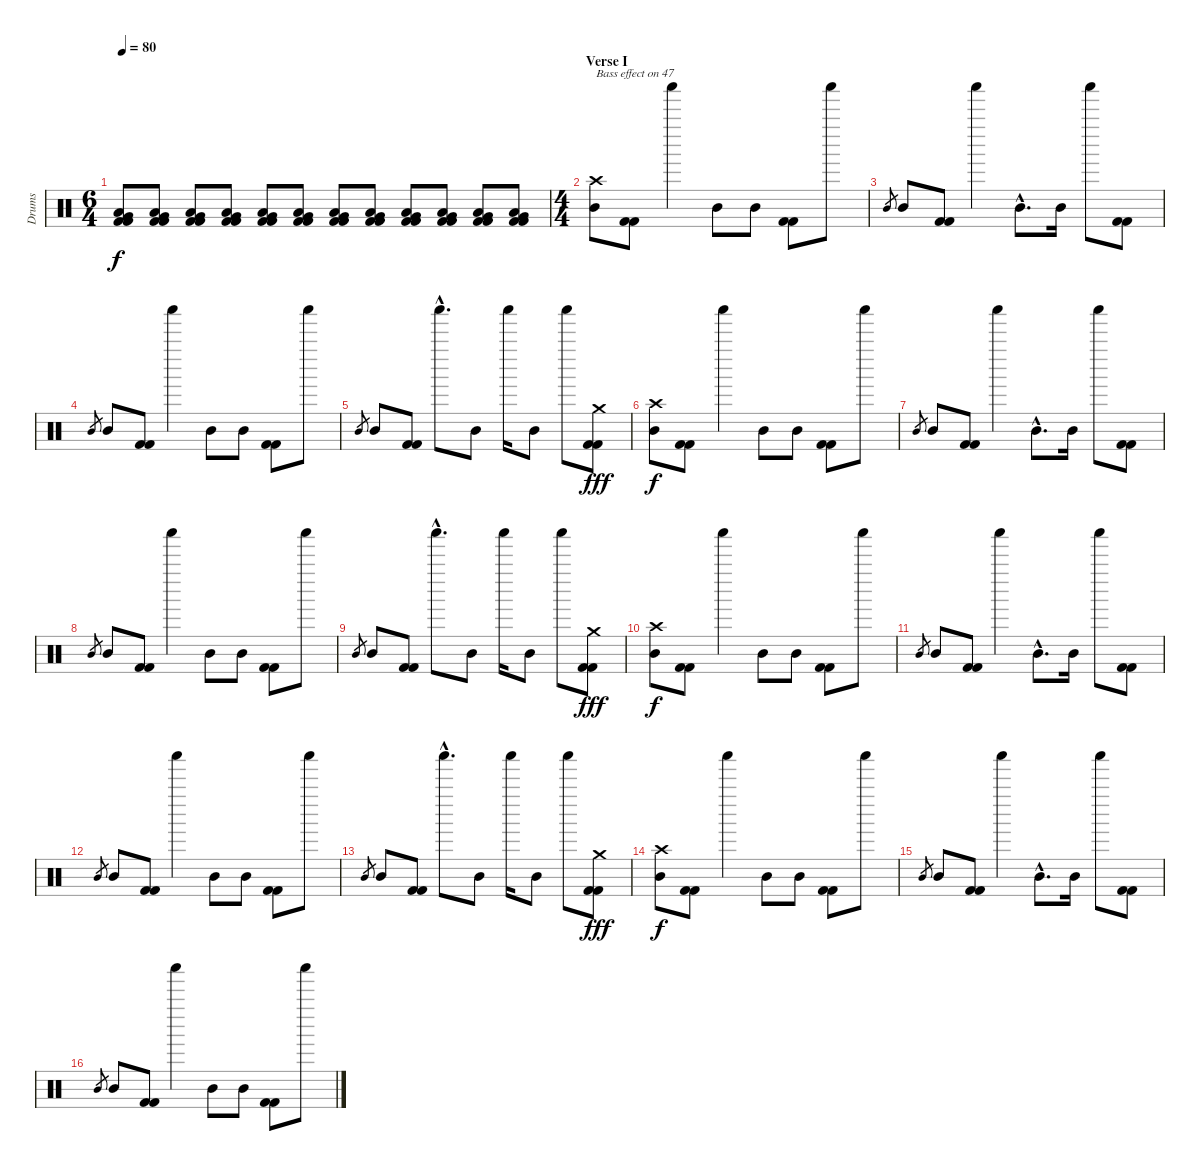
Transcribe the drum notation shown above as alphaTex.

\track ("Drums" "Drums") {instrument percussion}
\staff {score}
\articulation defaults
\ts (6 4)
\tempo 80
\clef neutral
\ks c
("Low Floor Tom (hit)" "Very Low Tom (hit)" "Kick (hit) 2" "Kick (hit) 2").8{dy f volume 0} ("Low Floor Tom (hit)" "Very Low Tom (hit)" "Kick (hit) 2" "Kick (hit) 2").8{volume 16} ("Low Floor Tom (hit)" "Very Low Tom (hit)" "Kick (hit) 2" "Kick (hit) 2").8 ("Low Floor Tom (hit)" "Very Low Tom (hit)" "Kick (hit) 2" "Kick (hit) 2").8 ("Low Floor Tom (hit)" "Very Low Tom (hit)" "Kick (hit) 2" "Kick (hit) 2").8 ("Low Floor Tom (hit)" "Very Low Tom (hit)" "Kick (hit) 2" "Kick (hit) 2").8 ("Low Floor Tom (hit)" "Very Low Tom (hit)" "Kick (hit) 2" "Kick (hit) 2").8 ("Low Floor Tom (hit)" "Very Low Tom (hit)" "Kick (hit) 2" "Kick (hit) 2").8 ("Low Floor Tom (hit)" "Very Low Tom (hit)" "Kick (hit) 2" "Kick (hit) 2").8 ("Low Floor Tom (hit)" "Very Low Tom (hit)" "Kick (hit) 2" "Kick (hit) 2").8 ("Low Floor Tom (hit)" "Very Low Tom (hit)" "Kick (hit) 2" "Kick (hit) 2").8 ("Low Floor Tom (hit)" "Very Low Tom (hit)" "Kick (hit) 2" "Kick (hit) 2").8 |
\ts (4 4)
\section ("" "Verse I")
("Crash high (hit)" "Mid Tom (hit)").8{bd 60 txt "Bass effect on 47"} ("Kick (hit) 2" "Kick (hit) 2").8 "Shaker (hit)".4 "Mid Tom (hit)".8 "Mid Tom (hit)".8 ("Kick (hit) 2" "Kick (hit) 2").8 "Shaker (hit)".8 |
"Mid Tom (hit)".8{gr} "Mid Tom (hit)".8 ("Kick (hit) 2" "Kick (hit) 2").8 "Shaker (hit)".4 "Mid Tom (hit)"{hac}.8{d} "Mid Tom (hit)".16 "Shaker (hit)".8 ("Kick (hit) 2" "Kick (hit) 2").8 |
"Mid Tom (hit)".8{gr} "Mid Tom (hit)".8 ("Kick (hit) 2" "Kick (hit) 2").8 "Shaker (hit)".4 "Mid Tom (hit)".8 "Mid Tom (hit)".8 ("Kick (hit) 2" "Kick (hit) 2").8 "Shaker (hit)".8 |
"Mid Tom (hit)".8{gr} "Mid Tom (hit)".8 ("Kick (hit) 2" "Kick (hit) 2").8 "Shaker (hit)"{hac}.8{d} "Mid Tom (hit)".8 "Shaker (hit)".16 "Mid Tom (hit)".8 "Shaker (hit)".8 ("Crash medium (hit)" "Kick (hit) 2" "Kick (hit) 2").8{dy fff} |
("Crash high (hit)" "Mid Tom (hit)").8{bd 60 dy f} ("Kick (hit) 2" "Kick (hit) 2").8 "Shaker (hit)".4 "Mid Tom (hit)".8 "Mid Tom (hit)".8 ("Kick (hit) 2" "Kick (hit) 2").8 "Shaker (hit)".8 |
"Mid Tom (hit)".8{gr} "Mid Tom (hit)".8 ("Kick (hit) 2" "Kick (hit) 2").8 "Shaker (hit)".4 "Mid Tom (hit)"{hac}.8{d} "Mid Tom (hit)".16 "Shaker (hit)".8 ("Kick (hit) 2" "Kick (hit) 2").8 |
"Mid Tom (hit)".8{gr} "Mid Tom (hit)".8 ("Kick (hit) 2" "Kick (hit) 2").8 "Shaker (hit)".4 "Mid Tom (hit)".8 "Mid Tom (hit)".8 ("Kick (hit) 2" "Kick (hit) 2").8 "Shaker (hit)".8 |
"Mid Tom (hit)".8{gr} "Mid Tom (hit)".8 ("Kick (hit) 2" "Kick (hit) 2").8 "Shaker (hit)"{hac}.8{d} "Mid Tom (hit)".8 "Shaker (hit)".16 "Mid Tom (hit)".8 "Shaker (hit)".8 ("Crash medium (hit)" "Kick (hit) 2" "Kick (hit) 2").8{dy fff} |
("Crash high (hit)" "Mid Tom (hit)").8{bd 60 dy f} ("Kick (hit) 2" "Kick (hit) 2").8 "Shaker (hit)".4 "Mid Tom (hit)".8 "Mid Tom (hit)".8 ("Kick (hit) 2" "Kick (hit) 2").8 "Shaker (hit)".8 |
"Mid Tom (hit)".8{gr} "Mid Tom (hit)".8 ("Kick (hit) 2" "Kick (hit) 2").8 "Shaker (hit)".4 "Mid Tom (hit)"{hac}.8{d} "Mid Tom (hit)".16 "Shaker (hit)".8 ("Kick (hit) 2" "Kick (hit) 2").8 |
"Mid Tom (hit)".8{gr} "Mid Tom (hit)".8 ("Kick (hit) 2" "Kick (hit) 2").8 "Shaker (hit)".4 "Mid Tom (hit)".8 "Mid Tom (hit)".8 ("Kick (hit) 2" "Kick (hit) 2").8 "Shaker (hit)".8 |
"Mid Tom (hit)".8{gr} "Mid Tom (hit)".8 ("Kick (hit) 2" "Kick (hit) 2").8 "Shaker (hit)"{hac}.8{d} "Mid Tom (hit)".8 "Shaker (hit)".16 "Mid Tom (hit)".8 "Shaker (hit)".8 ("Crash medium (hit)" "Kick (hit) 2" "Kick (hit) 2").8{dy fff} |
("Crash high (hit)" "Mid Tom (hit)").8{bd 60 dy f} ("Kick (hit) 2" "Kick (hit) 2").8 "Shaker (hit)".4 "Mid Tom (hit)".8 "Mid Tom (hit)".8 ("Kick (hit) 2" "Kick (hit) 2").8 "Shaker (hit)".8 |
"Mid Tom (hit)".8{gr} "Mid Tom (hit)".8 ("Kick (hit) 2" "Kick (hit) 2").8 "Shaker (hit)".4 "Mid Tom (hit)"{hac}.8{d} "Mid Tom (hit)".16 "Shaker (hit)".8 ("Kick (hit) 2" "Kick (hit) 2").8 |
"Mid Tom (hit)".8{gr} "Mid Tom (hit)".8 ("Kick (hit) 2" "Kick (hit) 2").8 "Shaker (hit)".4 "Mid Tom (hit)".8 "Mid Tom (hit)".8 ("Kick (hit) 2" "Kick (hit) 2").8 "Shaker (hit)".8
